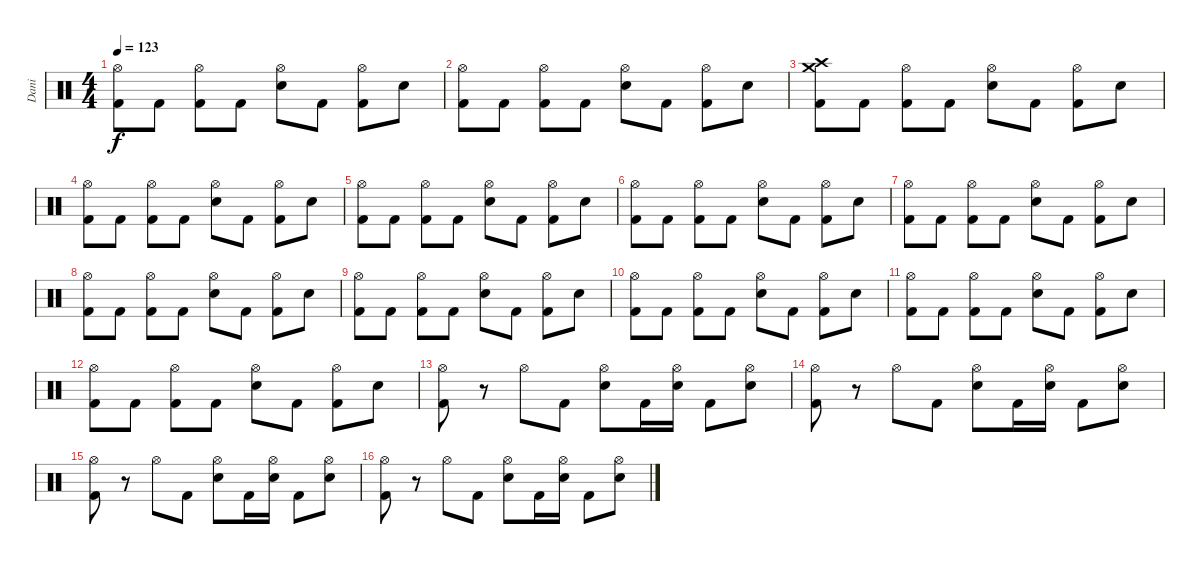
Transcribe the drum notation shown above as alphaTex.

\track ("Dani" "Dani") {instrument percussion}
\staff {score}
\articulation defaults
\ts (4 4)
\tempo 123
\clef neutral
\ks c
("Hi-Hat (open)" "Kick (hit) 2").8{dy f} "Kick (hit) 2".8 ("Hi-Hat (open)" "Kick (hit) 2").8 "Kick (hit) 2".8 ("Hi-Hat (open)" "Electric Snare (hit)").8 "Kick (hit) 2".8 ("Hi-Hat (open)" "Kick (hit) 2").8 "Electric Snare (hit)".8 |
("Hi-Hat (open)" "Kick (hit) 2").8 "Kick (hit) 2".8 ("Hi-Hat (open)" "Kick (hit) 2").8 "Kick (hit) 2".8 ("Hi-Hat (open)" "Electric Snare (hit)").8 "Kick (hit) 2".8 ("Hi-Hat (open)" "Kick (hit) 2").8 "Electric Snare (hit)".8 |
("Crash high (hit)" "Crash medium (hit)" "Kick (hit) 2").8 "Kick (hit) 2".8 ("Hi-Hat (open)" "Kick (hit) 2").8 "Kick (hit) 2".8 ("Hi-Hat (open)" "Electric Snare (hit)").8 "Kick (hit) 2".8 ("Hi-Hat (open)" "Kick (hit) 2").8 "Electric Snare (hit)".8 |
("Hi-Hat (open)" "Kick (hit) 2").8 "Kick (hit) 2".8 ("Hi-Hat (open)" "Kick (hit) 2").8 "Kick (hit) 2".8 ("Hi-Hat (open)" "Electric Snare (hit)").8 "Kick (hit) 2".8 ("Hi-Hat (open)" "Kick (hit) 2").8 "Electric Snare (hit)".8 |
("Hi-Hat (open)" "Kick (hit) 2").8 "Kick (hit) 2".8 ("Hi-Hat (open)" "Kick (hit) 2").8 "Kick (hit) 2".8 ("Hi-Hat (open)" "Electric Snare (hit)").8 "Kick (hit) 2".8 ("Hi-Hat (open)" "Kick (hit) 2").8 "Electric Snare (hit)".8 |
("Hi-Hat (open)" "Kick (hit) 2").8 "Kick (hit) 2".8 ("Hi-Hat (open)" "Kick (hit) 2").8 "Kick (hit) 2".8 ("Hi-Hat (open)" "Electric Snare (hit)").8 "Kick (hit) 2".8 ("Hi-Hat (open)" "Kick (hit) 2").8 "Electric Snare (hit)".8 |
("Hi-Hat (open)" "Kick (hit) 2").8 "Kick (hit) 2".8 ("Hi-Hat (open)" "Kick (hit) 2").8 "Kick (hit) 2".8 ("Hi-Hat (open)" "Electric Snare (hit)").8 "Kick (hit) 2".8 ("Hi-Hat (open)" "Kick (hit) 2").8 "Electric Snare (hit)".8 |
("Hi-Hat (open)" "Kick (hit) 2").8 "Kick (hit) 2".8 ("Hi-Hat (open)" "Kick (hit) 2").8 "Kick (hit) 2".8 ("Hi-Hat (open)" "Electric Snare (hit)").8 "Kick (hit) 2".8 ("Hi-Hat (open)" "Kick (hit) 2").8 "Electric Snare (hit)".8 |
("Hi-Hat (open)" "Kick (hit) 2").8 "Kick (hit) 2".8 ("Hi-Hat (open)" "Kick (hit) 2").8 "Kick (hit) 2".8 ("Hi-Hat (open)" "Electric Snare (hit)").8 "Kick (hit) 2".8 ("Hi-Hat (open)" "Kick (hit) 2").8 "Electric Snare (hit)".8 |
("Hi-Hat (open)" "Kick (hit) 2").8 "Kick (hit) 2".8 ("Hi-Hat (open)" "Kick (hit) 2").8 "Kick (hit) 2".8 ("Hi-Hat (open)" "Electric Snare (hit)").8 "Kick (hit) 2".8 ("Hi-Hat (open)" "Kick (hit) 2").8 "Electric Snare (hit)".8 |
("Hi-Hat (open)" "Kick (hit) 2").8 "Kick (hit) 2".8 ("Hi-Hat (open)" "Kick (hit) 2").8 "Kick (hit) 2".8 ("Hi-Hat (open)" "Electric Snare (hit)").8 "Kick (hit) 2".8 ("Hi-Hat (open)" "Kick (hit) 2").8 "Electric Snare (hit)".8 |
("Hi-Hat (open)" "Kick (hit) 2").8 "Kick (hit) 2".8 ("Hi-Hat (open)" "Kick (hit) 2").8 "Kick (hit) 2".8 ("Hi-Hat (open)" "Electric Snare (hit)").8 "Kick (hit) 2".8 ("Hi-Hat (open)" "Kick (hit) 2").8 "Electric Snare (hit)".8 |
("Hi-Hat (open)" "Kick (hit) 2").8 r.8 "Hi-Hat (open)".8 "Kick (hit) 2".8 ("Hi-Hat (open)" "Electric Snare (hit)").8 "Kick (hit) 2".16 ("Hi-Hat (open)" "Electric Snare (hit)").16 "Kick (hit) 2".8 ("Hi-Hat (open)" "Electric Snare (hit)").8 |
("Hi-Hat (open)" "Kick (hit) 2").8 r.8 "Hi-Hat (open)".8 "Kick (hit) 2".8 ("Hi-Hat (open)" "Electric Snare (hit)").8 "Kick (hit) 2".16 ("Hi-Hat (open)" "Electric Snare (hit)").16 "Kick (hit) 2".8 ("Hi-Hat (open)" "Electric Snare (hit)").8 |
("Hi-Hat (open)" "Kick (hit) 2").8 r.8 "Hi-Hat (open)".8 "Kick (hit) 2".8 ("Hi-Hat (open)" "Electric Snare (hit)").8 "Kick (hit) 2".16 ("Hi-Hat (open)" "Electric Snare (hit)").16 "Kick (hit) 2".8 ("Hi-Hat (open)" "Electric Snare (hit)").8 |
("Hi-Hat (open)" "Kick (hit) 2").8 r.8 "Hi-Hat (open)".8 "Kick (hit) 2".8 ("Hi-Hat (open)" "Electric Snare (hit)").8 "Kick (hit) 2".16 ("Hi-Hat (open)" "Electric Snare (hit)").16 "Kick (hit) 2".8 ("Hi-Hat (open)" "Electric Snare (hit)").8
